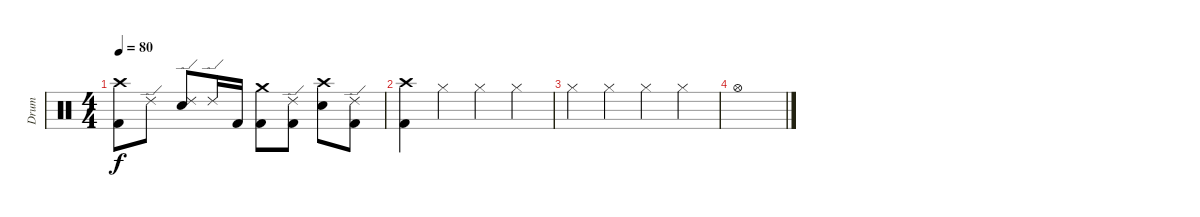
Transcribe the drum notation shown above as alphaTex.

\track ("Drum" "Drum") {instrument percussion}
\staff {score}
\articulation defaults
\ts (4 4)
\tempo 80
\clef neutral
\ks c
("Crash high (hit)" "Kick (hit) 2").8{dy f} "Ride (edge) 2".8 ("Ride (edge) 2" "Electric Snare (hit)").8 "Ride (edge) 2".16 "Kick (hit) 2".16 ("Crash medium (hit)" "Kick (hit) 2").8 ("Ride (edge) 2" "Kick (hit) 2").8 ("Crash high (hit)" "Electric Snare (hit)").8 ("Ride (edge) 2" "Kick (hit) 2").8 |
("Crash high (hit)" "Kick (hit) 2").4 "Hi-Hat (closed)".4 "Hi-Hat (closed)".4 "Hi-Hat (closed)".4 |
"Hi-Hat (closed)".4 "Hi-Hat (closed)".4 "Hi-Hat (closed)".4 "Hi-Hat (closed)".4 |
"Hi-Hat (open)".1
